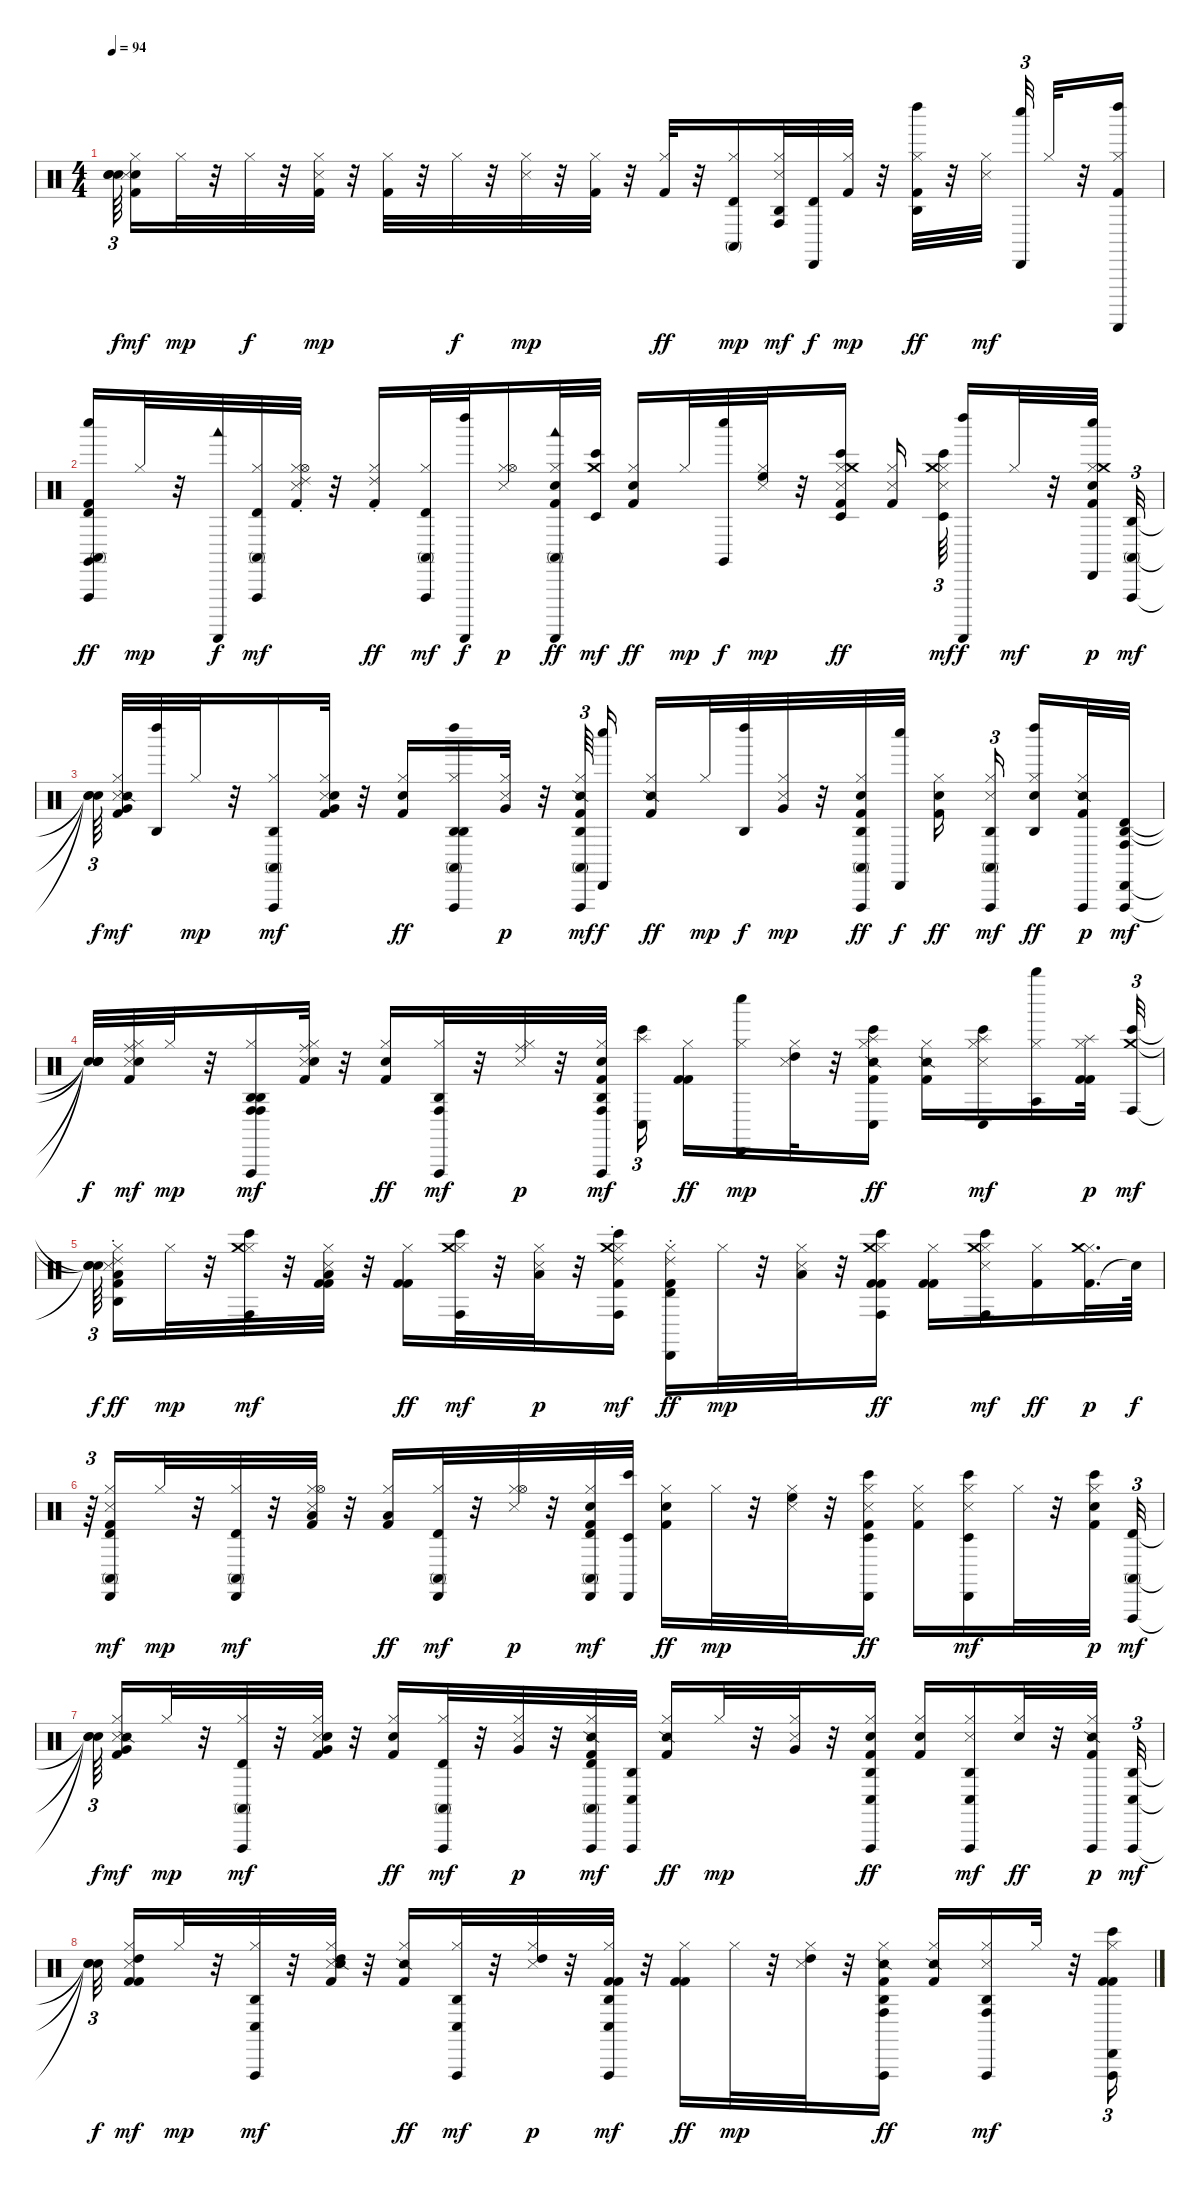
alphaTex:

\track "" {instrument percussion}
\staff {score}
\articulation defaults
\ts (4 4)
\tempo 94
\clef neutral
\ks c
("Snare (hit)"{t} "Snare (hit)"{t} "Snare (hit)"{t}).64{tu (3 2) dy f beam splitsecondary} ("Snare (hit) 2" "Kick (hit) 2" "Snare (side stick) 3" "Hi-Hat (closed)").16{dy mf volume 16 balance 10} "Hi-Hat (closed)".32{dy mp} r.32 "Hi-Hat (closed)".32{dy f} r.32 ("Kick (hit) 2" "Snare (side stick) 3" "Hi-Hat (closed)").32{dy mp} r.32 ("Kick (hit) 2" "Hi-Hat (closed)").32 r.32 "Hi-Hat (closed)".32{dy f} r.32 ("Snare (side stick) 3" "Hi-Hat (closed)").32{dy mp} r.32 ("Kick (hit) 2" "Hi-Hat (closed)").32 r.32 ("Kick (hit) 2" "Hi-Hat (closed)").32{dy ff} r.32 ("Hi-Hat (closed)" "Conga high (mute)" "Timbale high (hit)").16{dy mp} ("Agogo high (hit)" "Conga high (hit)" "Snare (side stick) 3" "Hi-Hat (closed)").32{dy mf} ("Cabasa (hit)" "Timbale high (hit)").32{dy f} ("Kick (hit) 2" "Hi-Hat (closed)").32{dy mp} r.32 ("Agogo high (hit)" "Left Maraca (hit)" "Kick (hit) 2" "Hi-Hat (closed)").32{dy ff} r.32 ("Snare (side stick) 3" "Hi-Hat (closed)").32{dy mf beam splitsecondary} ("Cabasa (hit)" "Whistle low (hit)").32{tu (3 2)} "Hi-Hat (closed)".32 r.32 ("Kick (hit) 2" "Hi-Hat (closed)" "Guiro (scrap-return)" "Left Maraca (hit)").16 |
("Whistle low (hit)" "Claves (hit)" "Conga high (mute)" "Timbale high (hit)" "Vibraslap (hit)" "Kick (hit) 2").16{dy ff} "Hi-Hat (closed)".32{dy mp} r.32 ("Woodblock low (hit)" "Guiro (scrap-return)").32{dy f} ("Hi-Hat (closed)" "Conga high (mute)" "Timbale high (hit)" "Vibraslap (hit)").32{dy mf} ("Kick (hit) 2" "Snare (side stick) 3" "Hi-Hat (closed)" "Ride (choke) 2" "Hi-Hat (open)").32 r.32 ("Kick (hit) 2" "Hi-Hat (closed)" "Ride (choke) 2").16{dy ff} ("Hi-Hat (closed)" "Timbale high (hit)" "Conga high (mute)" "Vibraslap (hit)").32{dy mf} ("Guiro (scrap-return)" "Left Maraca (hit)").32{dy f} ("Snare (side stick) 3" "Hi-Hat (closed)" "Hi-Hat (open)").16{dy p} ("Guiro (scrap-return)" "Woodblock low (hit)" "Kick (hit) 2" "Hi-Hat (closed)" "Metronome (bell)" "Conga high (mute)").32{dy ff} ("Bongo High (hit)" "Timbale low (hit)" "Crash medium (hit)").32{dy mf} ("Kick (hit) 2" "Hi-Hat (closed)" "Snare (hit) 2").16{dy ff} "Hi-Hat (closed)".32{dy mp} ("Whistle low (hit)" "Claves (hit)").32{dy f} ("Snare (side stick) 3" "Hi-Hat (closed)" "High Floor Tom (hit)").32{dy mp} r.32 ("Kick (hit) 2" "Hi-Hat (closed)" "Metronome (hit)" "Timbale low (hit)" "Crash medium (hit)" "Bongo High (hit)").16{dy ff} ("Kick (hit) 2" "Hi-Hat (closed)" "Metronome (hit)").16{beam splitsecondary} ("Snare (side stick) 3" "Hi-Hat (closed)" "Bongo High (hit)" "Crash medium (hit)" "Timbale low (hit)").64{tu (3 2) dy mf beam splitsecondary} ("Guiro (scrap-return)" "Left Maraca (hit)").16{dy f} "Hi-Hat (closed)".32{dy mf} r.32 ("Whistle low (hit)" "Cabasa (hit)" "Kick (hit) 2" "Hi-Hat (closed)" "Snare (hit) 2" "Crash medium (hit)").32{dy p} ("Vibraslap (hit)" "Agogo high (hit)" "Conga high (mute)").32{tu (3 2) dy mf} |
("Snare (hit)"{t} "Snare (hit)"{t} "Snare (hit)"{t}).64{tu (3 2) dy f beam splitsecondary} ("Kick (hit) 2" "Snare (side stick) 3" "Hi-Hat (closed)" "Snare (side stick) 2" "Very Low Tom (hit)").32{dy mf} ("Agogo high (hit)" "Left Maraca (hit)").32 "Hi-Hat (closed)".32{dy mp} r.32 ("Hi-Hat (closed)" "Conga high (mute)" "Agogo high (hit)" "Vibraslap (hit)").16{dy mf} ("Kick (hit) 2" "Snare (side stick) 3" "Hi-Hat (closed)" "Snare (hit) 2" "Very Low Tom (hit)").32 r.32 ("Kick (hit) 2" "Hi-Hat (closed)" "Snare (hit) 2").16{dy ff} ("Hi-Hat (closed)" "Agogo high (hit)" "Conga high (mute)" "Vibraslap (hit)" "Agogo high (hit)" "Left Maraca (hit)").16 ("Snare (side stick) 3" "Hi-Hat (closed)" "Very Low Tom (hit)").32{dy p} r.32 ("Kick (hit) 2" "Hi-Hat (closed)" "Snare (side stick) 2" "Conga high (mute)" "Vibraslap (hit)" "Agogo high (hit)").64{tu (3 2) dy mf} ("Cabasa (hit)" "Whistle low (hit)").16{dy f} ("Kick (hit) 2" "Hi-Hat (closed)" "Snare (side stick) 2").16{dy ff} "Hi-Hat (closed)".32{dy mp} ("Agogo high (hit)" "Left Maraca (hit)").32{dy f} ("Snare (side stick) 3" "Hi-Hat (closed)" "Very Low Tom (hit)").32{dy mp} r.32 ("Kick (hit) 2" "Hi-Hat (closed)" "Snare (hit) 2" "Agogo high (hit)" "Vibraslap (hit)" "Conga high (mute)").32{dy ff} ("Cabasa (hit)" "Whistle low (hit)").32{dy f} ("Kick (hit) 2" "Hi-Hat (closed)" "Snare (hit) 2").16{dy ff beam splitsecondary} ("Snare (side stick) 3" "Hi-Hat (closed)" "Conga high (mute)" "Vibraslap (hit)" "Agogo high (hit)").16{tu (3 2) dy mf beam splitsecondary} ("Agogo high (hit)" "Left Maraca (hit)" "Hi-Hat (closed)" "Snare (hit) 2").16{dy ff} ("Kick (hit) 2" "Hi-Hat (closed)" "Snare (side stick) 2" "Vibraslap (hit)").32{dy p} ("Cabasa (hit)" "Timbale high (hit)" "Vibraslap (hit)" "Agogo high (hit)" "Conga high (hit)").32{dy mf} |
("Snare (hit)"{t} "Snare (hit)"{t} "Snare (hit)"{t} "Snare (hit)"{t}).32{dy f} ("Kick (hit) 2" "Snare (side stick) 3" "Hi-Hat (closed)" "Hand Clap (hit)" "Ride (middle)").32{dy mf} "Hi-Hat (closed)".32{dy mp} r.32 ("Agogo high (hit)" "Conga high (hit)" "Hi-Hat (closed)" "Conga high (hit)" "Agogo high (hit)" "Vibraslap (hit)").16{dy mf} ("Kick (hit) 2" "Snare (side stick) 3" "Hi-Hat (closed)" "Metronome (bell)" "Ride (middle)").32 r.32 ("Kick (hit) 2" "Hi-Hat (closed)" "Metronome (bell)").16{dy ff} ("Hi-Hat (closed)" "Agogo high (hit)" "Conga high (hit)" "Vibraslap (hit)").32{dy mf} r.32 ("Snare (side stick) 3" "Hi-Hat (closed)" "Ride (middle)").32{dy p} r.32 ("Kick (hit) 2" "Hi-Hat (closed)" "Hand Clap (hit)" "Conga high (hit)" "Vibraslap (hit)" "Agogo high (hit)").32{dy mf} ("Bongo High (hit)" "Conga low (hit)" "Splash (hit)").16{tu (3 2)} ("Kick (hit) 2" "Hi-Hat (closed)" "Kick (hit) 2").16{dy ff} ("Hi-Hat (closed)" "Cabasa (hit)" "Whistle low (hit)").16{dy mp} ("Snare (side stick) 3" "Hi-Hat (closed)" "High Tom (hit)").32 r.32 ("Kick (hit) 2" "Hi-Hat (closed)" "Snare (side stick) 2" "Conga low (hit)" "Splash (hit)" "Bongo High (hit)").16{dy ff} ("Kick (hit) 2" "Hi-Hat (closed)" "Snare (side stick) 2").16 ("Snare (side stick) 3" "Hi-Hat (closed)" "Bongo High (hit)" "Splash (hit)" "Conga low (hit)").16{dy mf} ("Hi-Hat (closed)" "Agogo tow (hit)" "Whistle high (hit)").16 ("Kick (hit) 2" "Hi-Hat (closed)" "Kick (hit) 2" "Splash (hit)").32{dy p} ("Bongo High (hit)" "Conga high (hit)" "Crash medium (hit)").32{tu (3 2) dy mf} |
("Snare (hit)"{t} "Snare (hit)"{t} "Snare (hit)"{t}).64{tu (3 2) dy f beam splitsecondary} ("Kick (hit) 2" "Snare (side stick) 3" "Hi-Hat (closed)" "Ride (choke) 2" "Low Floor Tom (hit)" "Agogo high (hit)").16{dy ff} "Hi-Hat (closed)".32{dy mp} r.32 ("Hi-Hat (closed)" "Bongo High (hit)" "Conga high (hit)" "Crash medium (hit)").32{dy mf} r.32 ("Kick (hit) 2" "Snare (side stick) 3" "Hi-Hat (closed)" "Kick (hit) 2" "Low Floor Tom (hit)").32 r.32 ("Kick (hit) 2" "Hi-Hat (closed)" "Kick (hit) 2").16{dy ff} ("Hi-Hat (closed)" "Conga high (hit)" "Bongo High (hit)" "Crash medium (hit)").32{dy mf} r.32 ("Snare (side stick) 3" "Hi-Hat (closed)" "Low Floor Tom (hit)").32{dy p} r.32 ("Kick (hit) 2" "Hi-Hat (closed)" "Ride (choke) 2" "Bongo High (hit)" "Crash medium (hit)" "Conga high (hit)").16{dy mf} ("Kick (hit) 2" "Hi-Hat (closed)" "Ride (choke) 2" "Cabasa (hit)" "Timbale high (hit)").16{dy ff} "Hi-Hat (closed)".32{dy mp} r.32 ("Snare (side stick) 3" "Hi-Hat (closed)" "Low Floor Tom (hit)").32 r.32 ("Kick (hit) 2" "Hi-Hat (closed)" "Kick (hit) 2" "Conga high (hit)" "Crash medium (hit)" "Bongo High (hit)").16{dy ff} ("Kick (hit) 2" "Hi-Hat (closed)" "Kick (hit) 2").16 ("Snare (side stick) 3" "Hi-Hat (closed)" "Bongo High (hit)" "Crash medium (hit)" "Conga high (hit)").16{dy mf} ("Hi-Hat (closed)" "Kick (hit) 2").16{dy ff} ("Kick (hit) 2" "Hi-Hat (closed)" "Crash medium (hit)").32{d dy p} "Snare (hit)"{t}.64{dy f} |
r.64{tu (3 2)} ("Conga high (mute)" "Cabasa (hit)" "Timbale high (hit)" "Kick (hit) 2" "Snare (side stick) 3" "Hi-Hat (closed)").16{dy mf} "Hi-Hat (closed)".32{dy mp} r.32 ("Hi-Hat (closed)" "Conga high (mute)" "Cabasa (hit)" "Timbale high (hit)").32{dy mf} r.32 ("Kick (hit) 2" "Snare (side stick) 3" "Hi-Hat (closed)" "Low Floor Tom (hit)" "Hi-Hat (open)").32 r.32 ("Kick (hit) 2" "Hi-Hat (closed)" "Low Floor Tom (hit)").16{dy ff} ("Hi-Hat (closed)" "Conga high (mute)" "Timbale high (hit)" "Cabasa (hit)").32{dy mf} r.32 ("Snare (side stick) 3" "Hi-Hat (closed)" "Hi-Hat (open)").32{dy p} r.32 ("Kick (hit) 2" "Hi-Hat (closed)" "Metronome (bell)" "Cabasa (hit)" "Conga high (mute)" "Timbale high (hit)").32{dy mf} ("Bongo High (hit)" "Cabasa (hit)" "Timbale low (hit)").32{volume 6} ("Kick (hit) 2" "Hi-Hat (closed)" "Snare (hit) 2").16{dy ff} "Hi-Hat (closed)".32{dy mp} r.32 ("Snare (side stick) 3" "Hi-Hat (closed)" "High Floor Tom (hit)").32 r.32 ("Kick (hit) 2" "Hi-Hat (closed)" "Metronome (hit)" "Timbale low (hit)" "Bongo High (hit)" "Cabasa (hit)").16{dy ff} ("Kick (hit) 2" "Hi-Hat (closed)" "Metronome (hit)").16 ("Snare (side stick) 3" "Hi-Hat (closed)" "Cabasa (hit)" "Bongo High (hit)" "Timbale low (hit)").16{dy mf} "Hi-Hat (closed)".32 r.32 ("Kick (hit) 2" "Hi-Hat (closed)" "Snare (hit) 2" "Bongo High (hit)").32{dy p volume 7} ("Vibraslap (hit)" "Timbale high (hit)" "Conga high (mute)").32{tu (3 2) dy mf volume 6} |
("Snare (hit)"{t} "Snare (hit)"{t} "Snare (hit)"{t}).64{tu (3 2) dy f beam splitsecondary} ("Kick (hit) 2" "Snare (side stick) 3" "Hi-Hat (closed)" "Snare (side stick) 2" "Very Low Tom (hit)").16{dy mf} "Hi-Hat (closed)".32{dy mp} r.32 ("Hi-Hat (closed)" "Vibraslap (hit)" "Timbale high (hit)" "Conga high (mute)").32{dy mf} r.32 ("Kick (hit) 2" "Snare (side stick) 3" "Hi-Hat (closed)" "Snare (hit) 2" "Very Low Tom (hit)").32 r.32 ("Kick (hit) 2" "Hi-Hat (closed)" "Snare (hit) 2").16{dy ff} ("Hi-Hat (closed)" "Vibraslap (hit)" "Conga high (mute)" "Timbale high (hit)").32{dy mf} r.32 ("Snare (side stick) 3" "Hi-Hat (closed)" "Very Low Tom (hit)").32{dy p} r.32 ("Kick (hit) 2" "Hi-Hat (closed)" "Snare (side stick) 2" "Timbale high (hit)" "Vibraslap (hit)" "Conga high (mute)").32{dy mf volume 7} ("Vibraslap (hit)" "Agogo high (hit)" "Conga low (hit)").32{volume 6} ("Kick (hit) 2" "Hi-Hat (closed)" "Snare (side stick) 2").16{dy ff} "Hi-Hat (closed)".32{dy mp} r.32 ("Snare (side stick) 3" "Hi-Hat (closed)" "Very Low Tom (hit)").32 r.32 ("Kick (hit) 2" "Hi-Hat (closed)" "Snare (hit) 2" "Conga low (hit)" "Vibraslap (hit)" "Agogo high (hit)").16{dy ff} ("Kick (hit) 2" "Hi-Hat (closed)" "Snare (hit) 2").16 ("Snare (side stick) 3" "Hi-Hat (closed)" "Agogo high (hit)" "Vibraslap (hit)" "Conga low (hit)").16{dy mf} ("Hi-Hat (closed)" "Snare (hit) 2").32{dy ff} r.32 ("Kick (hit) 2" "Hi-Hat (closed)" "Snare (side stick) 2" "Vibraslap (hit)").32{dy p volume 7} ("Vibraslap (hit)" "Agogo high (hit)" "Conga low (hit)").32{tu (3 2) dy mf volume 6} |
("Snare (hit)"{t} "Snare (hit)"{t} "Snare (hit)"{t}).32{tu (3 2) dy f beam splitsecondary} ("Kick (hit) 2" "Snare (side stick) 3" "Hi-Hat (closed)" "Kick (hit) 2" "High Tom (hit)").16{dy mf} "Hi-Hat (closed)".32{dy mp} r.32 ("Hi-Hat (closed)" "Vibraslap (hit)" "Agogo high (hit)" "Conga low (hit)").32{dy mf} r.32 ("Kick (hit) 2" "Snare (side stick) 3" "Hi-Hat (closed)" "Snare (side stick) 2" "High Tom (hit)").32 r.32 ("Kick (hit) 2" "Hi-Hat (closed)" "Snare (side stick) 2").16{dy ff} ("Hi-Hat (closed)" "Vibraslap (hit)" "Conga low (hit)" "Agogo high (hit)").32{dy mf} r.32 ("Snare (side stick) 3" "Hi-Hat (closed)" "High Tom (hit)").32{dy p} r.32 ("Kick (hit) 2" "Hi-Hat (closed)" "Kick (hit) 2" "Agogo high (hit)" "Vibraslap (hit)" "Conga low (hit)").32{dy mf volume 7} r.32 ("Kick (hit) 2" "Hi-Hat (closed)" "Kick (hit) 2").16{dy ff} "Hi-Hat (closed)".32{dy mp} r.32 ("Snare (side stick) 3" "Hi-Hat (closed)" "High Tom (hit)").32 r.32 ("Kick (hit) 2" "Hi-Hat (closed)" "Snare (side stick) 2" "Conga high (hit)" "Vibraslap (hit)" "Agogo high (hit)").16{dy ff} ("Kick (hit) 2" "Hi-Hat (closed)" "Snare (side stick) 2").16 ("Snare (side stick) 3" "Hi-Hat (closed)" "Agogo high (hit)" "Vibraslap (hit)" "Conga high (hit)").16{dy mf} "Hi-Hat (closed)".32 r.32 ("Kick (hit) 2" "Hi-Hat (closed)" "Kick (hit) 2" "Vibraslap (hit)" "Bongo High (hit)" "Cabasa (hit)").16{tu (3 2)}
